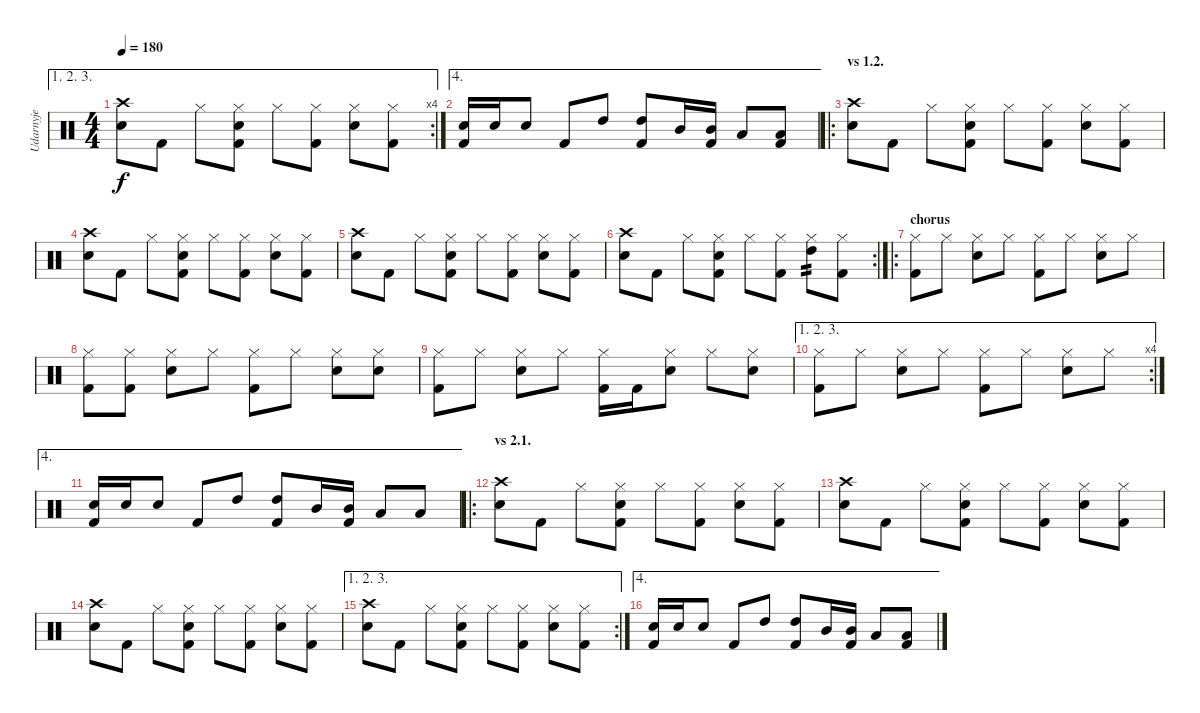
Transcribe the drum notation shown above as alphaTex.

\track ("Udarnyje" "Udarnyje") {instrument percussion}
\staff {score}
\articulation defaults
\ae (1 2 3)
\rc 4
\ts (4 4)
\tempo 180
\clef neutral
\ks c
("Crash high (hit)" "Electric Snare (hit)").8{dy f} "Kick (hit) 2".8 "Hi-Hat (closed)".8 ("Hi-Hat (closed)" "Electric Snare (hit)" "Kick (hit) 2").8 "Hi-Hat (closed)".8 ("Hi-Hat (closed)" "Kick (hit) 2").8 ("Hi-Hat (closed)" "Electric Snare (hit)").8 ("Hi-Hat (closed)" "Kick (hit) 2").8 |
\ae 4
("Electric Snare (hit)" "Kick (hit) 2").16 "Electric Snare (hit)".16 "Electric Snare (hit)".8 "Kick (hit) 2".8 "High Tom (hit)".8 ("High Tom (hit)" "Kick (hit) 2").8 "Mid Tom (hit)".16 ("Mid Tom (hit)" "Kick (hit) 2").16 "Low Tom (hit)".8 ("Low Tom (hit)" "Kick (hit) 2").8 |
\ro
\section ("" "vs 1.2.")
("Crash high (hit)" "Electric Snare (hit)").8 "Kick (hit) 2".8 "Hi-Hat (closed)".8 ("Hi-Hat (closed)" "Electric Snare (hit)" "Kick (hit) 2").8 "Hi-Hat (closed)".8 ("Hi-Hat (closed)" "Kick (hit) 2").8 ("Hi-Hat (closed)" "Electric Snare (hit)").8 ("Hi-Hat (closed)" "Kick (hit) 2").8 |
("Crash high (hit)" "Electric Snare (hit)").8 "Kick (hit) 2".8 "Hi-Hat (closed)".8 ("Hi-Hat (closed)" "Electric Snare (hit)" "Kick (hit) 2").8 "Hi-Hat (closed)".8 ("Hi-Hat (closed)" "Kick (hit) 2").8 ("Hi-Hat (closed)" "Electric Snare (hit)").8 ("Hi-Hat (closed)" "Kick (hit) 2").8 |
("Crash high (hit)" "Electric Snare (hit)").8 "Kick (hit) 2".8 "Hi-Hat (closed)".8 ("Hi-Hat (closed)" "Electric Snare (hit)" "Kick (hit) 2").8 "Hi-Hat (closed)".8 ("Hi-Hat (closed)" "Kick (hit) 2").8 ("Hi-Hat (closed)" "Electric Snare (hit)").8 ("Hi-Hat (closed)" "Kick (hit) 2").8 |
\rc 2
("Crash high (hit)" "Electric Snare (hit)").8 "Kick (hit) 2".8 "Hi-Hat (closed)".8 ("Hi-Hat (closed)" "Electric Snare (hit)" "Kick (hit) 2").8 "Hi-Hat (closed)".8 ("Hi-Hat (closed)" "Kick (hit) 2").8 ("Hi-Hat (closed)" "High Tom (hit)").8{tp 2} ("Hi-Hat (closed)" "Kick (hit) 2").8 |
\ro
\section ("" "chorus")
("Hi-Hat (closed)" "Kick (hit) 2").8 "Hi-Hat (closed)".8 ("Hi-Hat (closed)" "Electric Snare (hit)").8 "Hi-Hat (closed)".8 ("Hi-Hat (closed)" "Kick (hit) 2").8 "Hi-Hat (closed)".8 ("Hi-Hat (closed)" "Electric Snare (hit)").8 "Hi-Hat (closed)".8 |
("Hi-Hat (closed)" "Kick (hit) 2").8 ("Hi-Hat (closed)" "Kick (hit) 2").8 ("Hi-Hat (closed)" "Electric Snare (hit)").8 "Hi-Hat (closed)".8 ("Hi-Hat (closed)" "Kick (hit) 2").8 "Hi-Hat (closed)".8 ("Hi-Hat (closed)" "Electric Snare (hit)").8 ("Hi-Hat (closed)" "Electric Snare (hit)").8 |
("Hi-Hat (closed)" "Kick (hit) 2").8 "Hi-Hat (closed)".8 ("Hi-Hat (closed)" "Electric Snare (hit)").8 "Hi-Hat (closed)".8 ("Hi-Hat (closed)" "Kick (hit) 2").16 "Kick (hit) 2".16 ("Hi-Hat (closed)" "Electric Snare (hit)").8 "Hi-Hat (closed)".8 ("Hi-Hat (closed)" "Electric Snare (hit)").8 |
\ae (1 2 3)
\rc 4
("Hi-Hat (closed)" "Kick (hit) 2").8 "Hi-Hat (closed)".8 ("Hi-Hat (closed)" "Electric Snare (hit)").8 "Hi-Hat (closed)".8 ("Hi-Hat (closed)" "Kick (hit) 2").8 "Hi-Hat (closed)".8 ("Hi-Hat (closed)" "Electric Snare (hit)").8 "Hi-Hat (closed)".8 |
\ae 4
("Electric Snare (hit)" "Kick (hit) 2").16 "Electric Snare (hit)".16 "Electric Snare (hit)".8 "Kick (hit) 2".8 "High Tom (hit)".8 ("High Tom (hit)" "Kick (hit) 2").8 "Mid Tom (hit)".16 ("Mid Tom (hit)" "Kick (hit) 2").16 "Low Tom (hit)".8 "Low Tom (hit)".8 |
\ro
\section ("" "vs 2.1.")
("Crash high (hit)" "Electric Snare (hit)").8 "Kick (hit) 2".8 "Hi-Hat (closed)".8 ("Hi-Hat (closed)" "Electric Snare (hit)" "Kick (hit) 2").8 "Hi-Hat (closed)".8 ("Hi-Hat (closed)" "Kick (hit) 2").8 ("Hi-Hat (closed)" "Electric Snare (hit)").8 ("Hi-Hat (closed)" "Kick (hit) 2").8 |
("Crash high (hit)" "Electric Snare (hit)").8 "Kick (hit) 2".8 "Hi-Hat (closed)".8 ("Hi-Hat (closed)" "Electric Snare (hit)" "Kick (hit) 2").8 "Hi-Hat (closed)".8 ("Hi-Hat (closed)" "Kick (hit) 2").8 ("Hi-Hat (closed)" "Electric Snare (hit)").8 ("Hi-Hat (closed)" "Kick (hit) 2").8 |
("Crash high (hit)" "Electric Snare (hit)").8 "Kick (hit) 2".8 "Hi-Hat (closed)".8 ("Hi-Hat (closed)" "Electric Snare (hit)" "Kick (hit) 2").8 "Hi-Hat (closed)".8 ("Hi-Hat (closed)" "Kick (hit) 2").8 ("Hi-Hat (closed)" "Electric Snare (hit)").8 ("Hi-Hat (closed)" "Kick (hit) 2").8 |
\ae (1 2 3)
\rc 2
("Crash high (hit)" "Electric Snare (hit)").8 "Kick (hit) 2".8 "Hi-Hat (closed)".8 ("Hi-Hat (closed)" "Electric Snare (hit)" "Kick (hit) 2").8 "Hi-Hat (closed)".8 ("Hi-Hat (closed)" "Kick (hit) 2").8 ("Hi-Hat (closed)" "Electric Snare (hit)").8 ("Hi-Hat (closed)" "Kick (hit) 2").8 |
\ae 4
("Electric Snare (hit)" "Kick (hit) 2").16 "Electric Snare (hit)".16 "Electric Snare (hit)".8 "Kick (hit) 2".8 "High Tom (hit)".8 ("High Tom (hit)" "Kick (hit) 2").8 "Mid Tom (hit)".16 ("Mid Tom (hit)" "Kick (hit) 2").16 "Low Tom (hit)".8 ("Low Tom (hit)" "Kick (hit) 2").8
